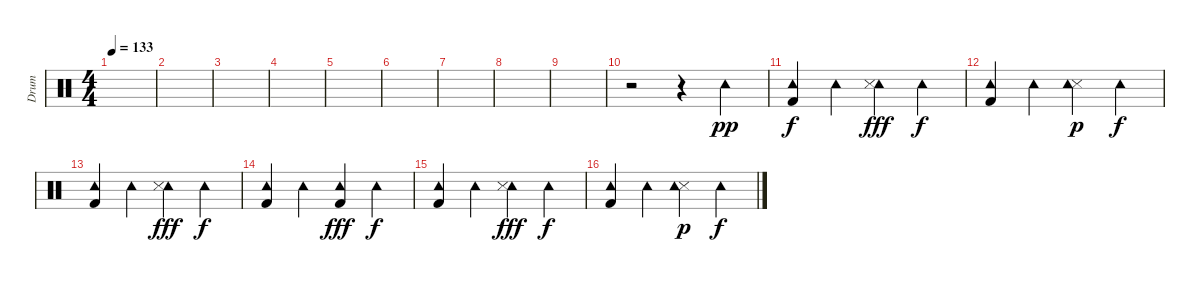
\track ("Drum" "Drum") {instrument percussion}
\staff {score}
\articulation defaults
\ts (4 4)
\tempo 133
\clef neutral
\ks c
|
|
|
|
|
|
|
|
|
r.2 r.4 "Tambourine (hit)".4{dy pp} |
("Tambourine (hit)" "Kick (hit) 2").4{dy f} "Tambourine (hit)".4 ("Tambourine (hit)" "Snare (side stick) 3").4{dy fff} "Tambourine (hit)".4{dy f} |
("Tambourine (hit)" "Kick (hit) 2").4 "Tambourine (hit)".4 ("Snare (side stick) 3" "Tambourine (hit)").4{dy p} "Tambourine (hit)".4{dy f} |
("Tambourine (hit)" "Kick (hit) 2").4 "Tambourine (hit)".4 ("Tambourine (hit)" "Snare (side stick) 3").4{dy fff} "Tambourine (hit)".4{dy f} |
("Tambourine (hit)" "Kick (hit) 2").4 "Tambourine (hit)".4 ("Kick (hit) 2" "Tambourine (hit)").4{dy fff} "Tambourine (hit)".4{dy f} |
("Tambourine (hit)" "Kick (hit) 2").4 "Tambourine (hit)".4 ("Tambourine (hit)" "Snare (side stick) 3").4{dy fff} "Tambourine (hit)".4{dy f} |
("Tambourine (hit)" "Kick (hit) 2").4 "Tambourine (hit)".4 ("Snare (side stick) 3" "Tambourine (hit)").4{dy p} "Tambourine (hit)".4{dy f}
